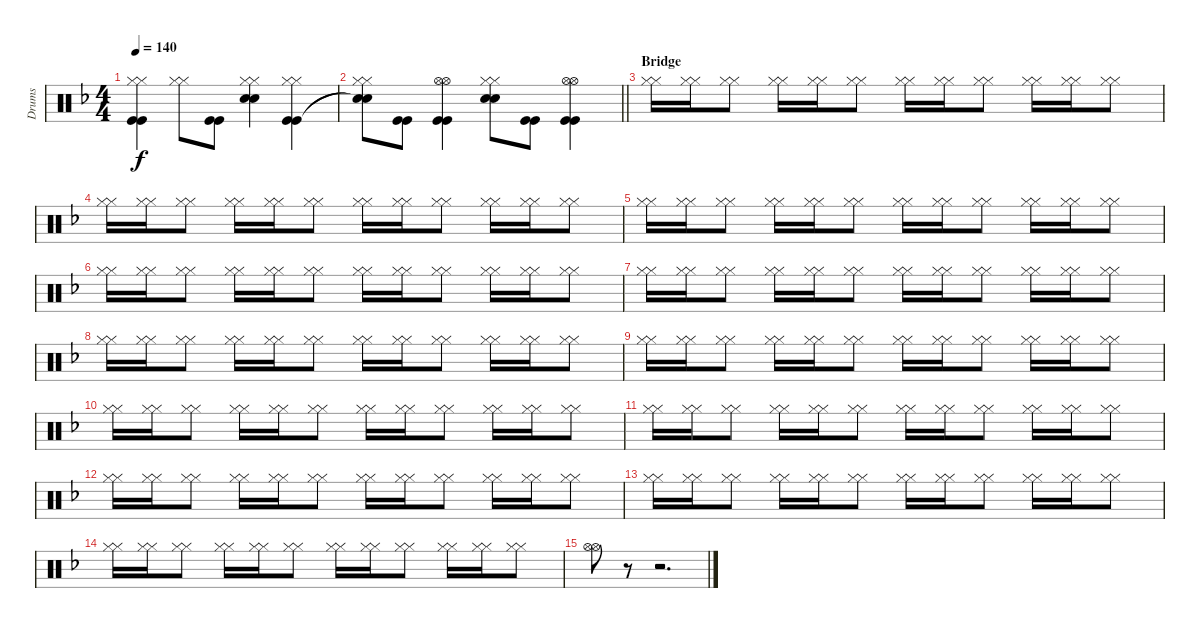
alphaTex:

\track ("Drums" "Drums") {instrument percussion}
\staff {score}
\articulation defaults
\ts (4 4)
\tempo 140
\clef neutral
\ks f
("Hi-Hat (closed)" "Hi-Hat (closed)" "Kick (hit)" "Kick (hit)").4{dy f} ("Hi-Hat (closed)" "Hi-Hat (closed)").8 ("Kick (hit)" "Kick (hit)").8 ("Hi-Hat (closed)" "Hi-Hat (closed)" "Snare (hit) 2" "Snare (hit) 2").4 ("Hi-Hat (closed)" "Hi-Hat (closed)" "Kick (hit)" "Kick (hit)").4 |
\barLineRight lightlight
("Hi-Hat (closed)" "Hi-Hat (closed)" "Snare (hit)"{t} "Snare (hit)"{t}).8 ("Kick (hit)" "Kick (hit)").8 ("Hi-Hat (open)" "Hi-Hat (open)" "Kick (hit)" "Kick (hit)").4 ("Hi-Hat (closed)" "Hi-Hat (closed)" "Snare (hit) 2" "Snare (hit) 2").8 ("Kick (hit)" "Kick (hit)").8 ("Hi-Hat (open)" "Hi-Hat (open)" "Kick (hit)" "Kick (hit)").4 |
\section ("" "Bridge")
("Hi-Hat (closed)" "Hi-Hat (closed)").16 ("Hi-Hat (closed)" "Hi-Hat (closed)").16 ("Hi-Hat (closed)" "Hi-Hat (closed)").8 ("Hi-Hat (closed)" "Hi-Hat (closed)").16 ("Hi-Hat (closed)" "Hi-Hat (closed)").16 ("Hi-Hat (closed)" "Hi-Hat (closed)").8 ("Hi-Hat (closed)" "Hi-Hat (closed)").16 ("Hi-Hat (closed)" "Hi-Hat (closed)").16 ("Hi-Hat (closed)" "Hi-Hat (closed)").8 ("Hi-Hat (closed)" "Hi-Hat (closed)").16 ("Hi-Hat (closed)" "Hi-Hat (closed)").16 ("Hi-Hat (closed)" "Hi-Hat (closed)").8 |
("Hi-Hat (closed)" "Hi-Hat (closed)").16 ("Hi-Hat (closed)" "Hi-Hat (closed)").16 ("Hi-Hat (closed)" "Hi-Hat (closed)").8 ("Hi-Hat (closed)" "Hi-Hat (closed)").16 ("Hi-Hat (closed)" "Hi-Hat (closed)").16 ("Hi-Hat (closed)" "Hi-Hat (closed)").8 ("Hi-Hat (closed)" "Hi-Hat (closed)").16 ("Hi-Hat (closed)" "Hi-Hat (closed)").16 ("Hi-Hat (closed)" "Hi-Hat (closed)").8 ("Hi-Hat (closed)" "Hi-Hat (closed)").16 ("Hi-Hat (closed)" "Hi-Hat (closed)").16 ("Hi-Hat (closed)" "Hi-Hat (closed)").8 |
("Hi-Hat (closed)" "Hi-Hat (closed)").16 ("Hi-Hat (closed)" "Hi-Hat (closed)").16 ("Hi-Hat (closed)" "Hi-Hat (closed)").8 ("Hi-Hat (closed)" "Hi-Hat (closed)").16 ("Hi-Hat (closed)" "Hi-Hat (closed)").16 ("Hi-Hat (closed)" "Hi-Hat (closed)").8 ("Hi-Hat (closed)" "Hi-Hat (closed)").16 ("Hi-Hat (closed)" "Hi-Hat (closed)").16 ("Hi-Hat (closed)" "Hi-Hat (closed)").8 ("Hi-Hat (closed)" "Hi-Hat (closed)").16 ("Hi-Hat (closed)" "Hi-Hat (closed)").16 ("Hi-Hat (closed)" "Hi-Hat (closed)").8 |
("Hi-Hat (closed)" "Hi-Hat (closed)").16 ("Hi-Hat (closed)" "Hi-Hat (closed)").16 ("Hi-Hat (closed)" "Hi-Hat (closed)").8 ("Hi-Hat (closed)" "Hi-Hat (closed)").16 ("Hi-Hat (closed)" "Hi-Hat (closed)").16 ("Hi-Hat (closed)" "Hi-Hat (closed)").8 ("Hi-Hat (closed)" "Hi-Hat (closed)").16 ("Hi-Hat (closed)" "Hi-Hat (closed)").16 ("Hi-Hat (closed)" "Hi-Hat (closed)").8 ("Hi-Hat (closed)" "Hi-Hat (closed)").16 ("Hi-Hat (closed)" "Hi-Hat (closed)").16 ("Hi-Hat (closed)" "Hi-Hat (closed)").8 |
("Hi-Hat (closed)" "Hi-Hat (closed)").16 ("Hi-Hat (closed)" "Hi-Hat (closed)").16 ("Hi-Hat (closed)" "Hi-Hat (closed)").8 ("Hi-Hat (closed)" "Hi-Hat (closed)").16 ("Hi-Hat (closed)" "Hi-Hat (closed)").16 ("Hi-Hat (closed)" "Hi-Hat (closed)").8 ("Hi-Hat (closed)" "Hi-Hat (closed)").16 ("Hi-Hat (closed)" "Hi-Hat (closed)").16 ("Hi-Hat (closed)" "Hi-Hat (closed)").8 ("Hi-Hat (closed)" "Hi-Hat (closed)").16 ("Hi-Hat (closed)" "Hi-Hat (closed)").16 ("Hi-Hat (closed)" "Hi-Hat (closed)").8 |
("Hi-Hat (closed)" "Hi-Hat (closed)").16 ("Hi-Hat (closed)" "Hi-Hat (closed)").16 ("Hi-Hat (closed)" "Hi-Hat (closed)").8 ("Hi-Hat (closed)" "Hi-Hat (closed)").16 ("Hi-Hat (closed)" "Hi-Hat (closed)").16 ("Hi-Hat (closed)" "Hi-Hat (closed)").8 ("Hi-Hat (closed)" "Hi-Hat (closed)").16 ("Hi-Hat (closed)" "Hi-Hat (closed)").16 ("Hi-Hat (closed)" "Hi-Hat (closed)").8 ("Hi-Hat (closed)" "Hi-Hat (closed)").16 ("Hi-Hat (closed)" "Hi-Hat (closed)").16 ("Hi-Hat (closed)" "Hi-Hat (closed)").8 |
("Hi-Hat (closed)" "Hi-Hat (closed)").16 ("Hi-Hat (closed)" "Hi-Hat (closed)").16 ("Hi-Hat (closed)" "Hi-Hat (closed)").8 ("Hi-Hat (closed)" "Hi-Hat (closed)").16 ("Hi-Hat (closed)" "Hi-Hat (closed)").16 ("Hi-Hat (closed)" "Hi-Hat (closed)").8 ("Hi-Hat (closed)" "Hi-Hat (closed)").16 ("Hi-Hat (closed)" "Hi-Hat (closed)").16 ("Hi-Hat (closed)" "Hi-Hat (closed)").8 ("Hi-Hat (closed)" "Hi-Hat (closed)").16 ("Hi-Hat (closed)" "Hi-Hat (closed)").16 ("Hi-Hat (closed)" "Hi-Hat (closed)").8 |
("Hi-Hat (closed)" "Hi-Hat (closed)").16 ("Hi-Hat (closed)" "Hi-Hat (closed)").16 ("Hi-Hat (closed)" "Hi-Hat (closed)").8 ("Hi-Hat (closed)" "Hi-Hat (closed)").16 ("Hi-Hat (closed)" "Hi-Hat (closed)").16 ("Hi-Hat (closed)" "Hi-Hat (closed)").8 ("Hi-Hat (closed)" "Hi-Hat (closed)").16 ("Hi-Hat (closed)" "Hi-Hat (closed)").16 ("Hi-Hat (closed)" "Hi-Hat (closed)").8 ("Hi-Hat (closed)" "Hi-Hat (closed)").16 ("Hi-Hat (closed)" "Hi-Hat (closed)").16 ("Hi-Hat (closed)" "Hi-Hat (closed)").8 |
("Hi-Hat (closed)" "Hi-Hat (closed)").16 ("Hi-Hat (closed)" "Hi-Hat (closed)").16 ("Hi-Hat (closed)" "Hi-Hat (closed)").8 ("Hi-Hat (closed)" "Hi-Hat (closed)").16 ("Hi-Hat (closed)" "Hi-Hat (closed)").16 ("Hi-Hat (closed)" "Hi-Hat (closed)").8 ("Hi-Hat (closed)" "Hi-Hat (closed)").16 ("Hi-Hat (closed)" "Hi-Hat (closed)").16 ("Hi-Hat (closed)" "Hi-Hat (closed)").8 ("Hi-Hat (closed)" "Hi-Hat (closed)").16 ("Hi-Hat (closed)" "Hi-Hat (closed)").16 ("Hi-Hat (closed)" "Hi-Hat (closed)").8 |
("Hi-Hat (closed)" "Hi-Hat (closed)").16 ("Hi-Hat (closed)" "Hi-Hat (closed)").16 ("Hi-Hat (closed)" "Hi-Hat (closed)").8 ("Hi-Hat (closed)" "Hi-Hat (closed)").16 ("Hi-Hat (closed)" "Hi-Hat (closed)").16 ("Hi-Hat (closed)" "Hi-Hat (closed)").8 ("Hi-Hat (closed)" "Hi-Hat (closed)").16 ("Hi-Hat (closed)" "Hi-Hat (closed)").16 ("Hi-Hat (closed)" "Hi-Hat (closed)").8 ("Hi-Hat (closed)" "Hi-Hat (closed)").16 ("Hi-Hat (closed)" "Hi-Hat (closed)").16 ("Hi-Hat (closed)" "Hi-Hat (closed)").8 |
("Hi-Hat (closed)" "Hi-Hat (closed)").16 ("Hi-Hat (closed)" "Hi-Hat (closed)").16 ("Hi-Hat (closed)" "Hi-Hat (closed)").8 ("Hi-Hat (closed)" "Hi-Hat (closed)").16 ("Hi-Hat (closed)" "Hi-Hat (closed)").16 ("Hi-Hat (closed)" "Hi-Hat (closed)").8 ("Hi-Hat (closed)" "Hi-Hat (closed)").16 ("Hi-Hat (closed)" "Hi-Hat (closed)").16 ("Hi-Hat (closed)" "Hi-Hat (closed)").8 ("Hi-Hat (closed)" "Hi-Hat (closed)").16 ("Hi-Hat (closed)" "Hi-Hat (closed)").16 ("Hi-Hat (closed)" "Hi-Hat (closed)").8 |
("Hi-Hat (closed)" "Hi-Hat (closed)").16 ("Hi-Hat (closed)" "Hi-Hat (closed)").16 ("Hi-Hat (closed)" "Hi-Hat (closed)").8 ("Hi-Hat (closed)" "Hi-Hat (closed)").16 ("Hi-Hat (closed)" "Hi-Hat (closed)").16 ("Hi-Hat (closed)" "Hi-Hat (closed)").8 ("Hi-Hat (closed)" "Hi-Hat (closed)").16 ("Hi-Hat (closed)" "Hi-Hat (closed)").16 ("Hi-Hat (closed)" "Hi-Hat (closed)").8 ("Hi-Hat (closed)" "Hi-Hat (closed)").16 ("Hi-Hat (closed)" "Hi-Hat (closed)").16 ("Hi-Hat (closed)" "Hi-Hat (closed)").8 |
("Hi-Hat (open)" "Hi-Hat (open)").8 r.8 r.2{d}
